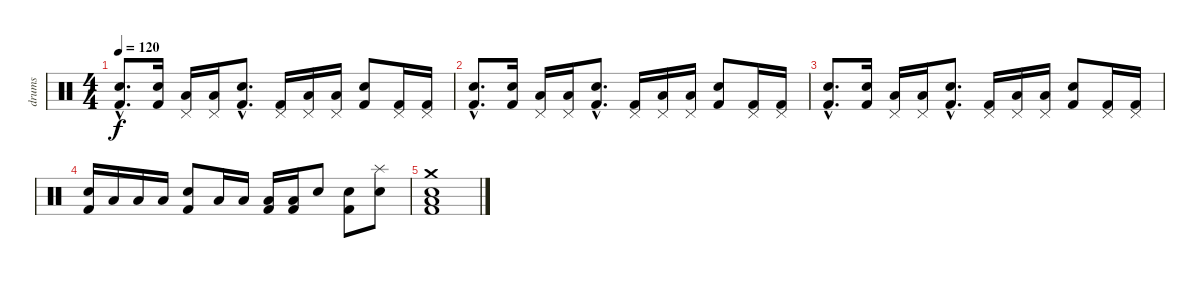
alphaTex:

\track ("drums" "drums") {instrument percussion}
\staff {score}
\articulation defaults
\ts (4 4)
\tempo 120
\clef neutral
\ks c
("Electric Snare (hit)"{hac} "Kick (hit) 2"{hac}).8{d dy f} ("Electric Snare (hit)" "Kick (hit) 2").16 ("Pedal Hi-Hat (hit)" "Low Tom (hit)").16 ("Pedal Hi-Hat (hit)" "Low Tom (hit)").16 ("Electric Snare (hit)"{hac} "Kick (hit) 2"{hac}).8{d} ("Pedal Hi-Hat (hit)" "Kick (hit) 2").16 ("Pedal Hi-Hat (hit)" "Low Tom (hit)").16 ("Pedal Hi-Hat (hit)" "Low Tom (hit)").16 ("Electric Snare (hit)" "Kick (hit) 2").8 ("Pedal Hi-Hat (hit)" "Kick (hit) 2").16 ("Pedal Hi-Hat (hit)" "Kick (hit) 2").16 |
("Electric Snare (hit)"{hac} "Kick (hit) 2"{hac}).8{d} ("Electric Snare (hit)" "Kick (hit) 2").16 ("Pedal Hi-Hat (hit)" "Low Tom (hit)").16 ("Pedal Hi-Hat (hit)" "Low Tom (hit)").16 ("Electric Snare (hit)"{hac} "Kick (hit) 2"{hac}).8{d} ("Pedal Hi-Hat (hit)" "Kick (hit) 2").16 ("Pedal Hi-Hat (hit)" "Low Tom (hit)").16 ("Pedal Hi-Hat (hit)" "Low Tom (hit)").16 ("Electric Snare (hit)" "Kick (hit) 2").8 ("Pedal Hi-Hat (hit)" "Kick (hit) 2").16 ("Pedal Hi-Hat (hit)" "Kick (hit) 2").16 |
("Electric Snare (hit)"{hac} "Kick (hit) 2"{hac}).8{d} ("Electric Snare (hit)" "Kick (hit) 2").16 ("Pedal Hi-Hat (hit)" "Low Tom (hit)").16 ("Pedal Hi-Hat (hit)" "Low Tom (hit)").16 ("Electric Snare (hit)"{hac} "Kick (hit) 2"{hac}).8{d} ("Pedal Hi-Hat (hit)" "Kick (hit) 2").16 ("Pedal Hi-Hat (hit)" "Low Tom (hit)").16 ("Pedal Hi-Hat (hit)" "Low Tom (hit)").16 ("Electric Snare (hit)" "Kick (hit) 2").8 ("Pedal Hi-Hat (hit)" "Kick (hit) 2").16 ("Pedal Hi-Hat (hit)" "Kick (hit) 2").16 |
("Electric Snare (hit)" "Kick (hit) 2").16 "Low Tom (hit)".16 "Low Tom (hit)".16 "Low Tom (hit)".16 ("Electric Snare (hit)" "Kick (hit) 2").8 "Low Tom (hit)".16 "Low Tom (hit)".16 ("Low Tom (hit)" "Kick (hit) 2").16 ("Low Tom (hit)" "Kick (hit) 2").16 "Electric Snare (hit)".8 ("Electric Snare (hit)" "Kick (hit) 2").8 ("Splash (hit)" "Electric Snare (hit)").8 |
("Crash medium (hit)" "Electric Snare (hit)" "Low Tom (hit)" "Kick (hit) 2").1
